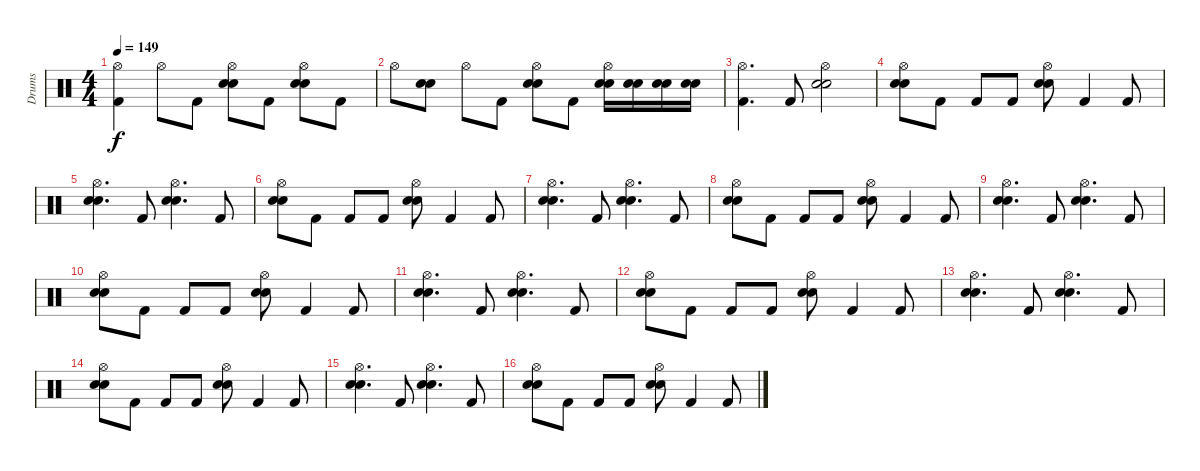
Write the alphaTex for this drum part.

\track ("Drums" "Drums") {instrument percussion}
\staff {score}
\articulation defaults
\ts (4 4)
\tempo 149
\clef neutral
\ks c
("Kick (hit) 2" "Hi-Hat (open)").4{dy f} "Hi-Hat (open)".8 "Kick (hit) 2".8 ("Electric Snare (hit)" "Snare (hit) 2" "Hi-Hat (open)").8 "Kick (hit) 2".8 ("Electric Snare (hit)" "Snare (hit) 2" "Hi-Hat (open)").8 "Kick (hit) 2".8 |
"Hi-Hat (open)".8 ("Electric Snare (hit)" "Snare (hit) 2").8 "Hi-Hat (open)".8 "Kick (hit) 2".8 ("Electric Snare (hit)" "Snare (hit) 2" "Hi-Hat (open)").8 "Kick (hit) 2".8 ("Electric Snare (hit)" "Snare (hit) 2" "Hi-Hat (open)").16 ("Electric Snare (hit)" "Snare (hit) 2").16 ("Electric Snare (hit)" "Snare (hit) 2").16 ("Electric Snare (hit)" "Snare (hit) 2").16 |
("Kick (hit) 2" "Hi-Hat (open)").4{d} "Kick (hit) 2".8 ("Electric Snare (hit)" "Snare (hit) 2" "Hi-Hat (open)").2 |
("Electric Snare (hit)" "Snare (hit) 2" "Hi-Hat (open)").8 "Kick (hit) 2".8 "Kick (hit) 2".8 "Kick (hit) 2".8 ("Electric Snare (hit)" "Snare (hit) 2" "Hi-Hat (open)").8 "Kick (hit) 2".4 "Kick (hit) 2".8 |
("Electric Snare (hit)" "Snare (hit) 2" "Hi-Hat (open)").4{d} "Kick (hit) 2".8 ("Electric Snare (hit)" "Snare (hit) 2" "Hi-Hat (open)").4{d} "Kick (hit) 2".8 |
("Electric Snare (hit)" "Snare (hit) 2" "Hi-Hat (open)").8 "Kick (hit) 2".8 "Kick (hit) 2".8 "Kick (hit) 2".8 ("Electric Snare (hit)" "Snare (hit) 2" "Hi-Hat (open)").8 "Kick (hit) 2".4 "Kick (hit) 2".8 |
("Electric Snare (hit)" "Snare (hit) 2" "Hi-Hat (open)").4{d} "Kick (hit) 2".8 ("Electric Snare (hit)" "Snare (hit) 2" "Hi-Hat (open)").4{d} "Kick (hit) 2".8 |
("Electric Snare (hit)" "Snare (hit) 2" "Hi-Hat (open)").8 "Kick (hit) 2".8 "Kick (hit) 2".8 "Kick (hit) 2".8 ("Electric Snare (hit)" "Snare (hit) 2" "Hi-Hat (open)").8 "Kick (hit) 2".4 "Kick (hit) 2".8 |
("Electric Snare (hit)" "Snare (hit) 2" "Hi-Hat (open)").4{d} "Kick (hit) 2".8 ("Electric Snare (hit)" "Snare (hit) 2" "Hi-Hat (open)").4{d} "Kick (hit) 2".8 |
("Electric Snare (hit)" "Snare (hit) 2" "Hi-Hat (open)").8 "Kick (hit) 2".8 "Kick (hit) 2".8 "Kick (hit) 2".8 ("Electric Snare (hit)" "Snare (hit) 2" "Hi-Hat (open)").8 "Kick (hit) 2".4 "Kick (hit) 2".8 |
("Electric Snare (hit)" "Snare (hit) 2" "Hi-Hat (open)").4{d} "Kick (hit) 2".8 ("Electric Snare (hit)" "Snare (hit) 2" "Hi-Hat (open)").4{d} "Kick (hit) 2".8 |
("Electric Snare (hit)" "Snare (hit) 2" "Hi-Hat (open)").8 "Kick (hit) 2".8 "Kick (hit) 2".8 "Kick (hit) 2".8 ("Electric Snare (hit)" "Snare (hit) 2" "Hi-Hat (open)").8 "Kick (hit) 2".4 "Kick (hit) 2".8 |
("Electric Snare (hit)" "Snare (hit) 2" "Hi-Hat (open)").4{d} "Kick (hit) 2".8 ("Electric Snare (hit)" "Snare (hit) 2" "Hi-Hat (open)").4{d} "Kick (hit) 2".8 |
("Electric Snare (hit)" "Snare (hit) 2" "Hi-Hat (open)").8 "Kick (hit) 2".8 "Kick (hit) 2".8 "Kick (hit) 2".8 ("Electric Snare (hit)" "Snare (hit) 2" "Hi-Hat (open)").8 "Kick (hit) 2".4 "Kick (hit) 2".8 |
("Electric Snare (hit)" "Snare (hit) 2" "Hi-Hat (open)").4{d} "Kick (hit) 2".8 ("Electric Snare (hit)" "Snare (hit) 2" "Hi-Hat (open)").4{d} "Kick (hit) 2".8 |
("Electric Snare (hit)" "Snare (hit) 2" "Hi-Hat (open)").8 "Kick (hit) 2".8 "Kick (hit) 2".8 "Kick (hit) 2".8 ("Electric Snare (hit)" "Snare (hit) 2" "Hi-Hat (open)").8 "Kick (hit) 2".4 "Kick (hit) 2".8
